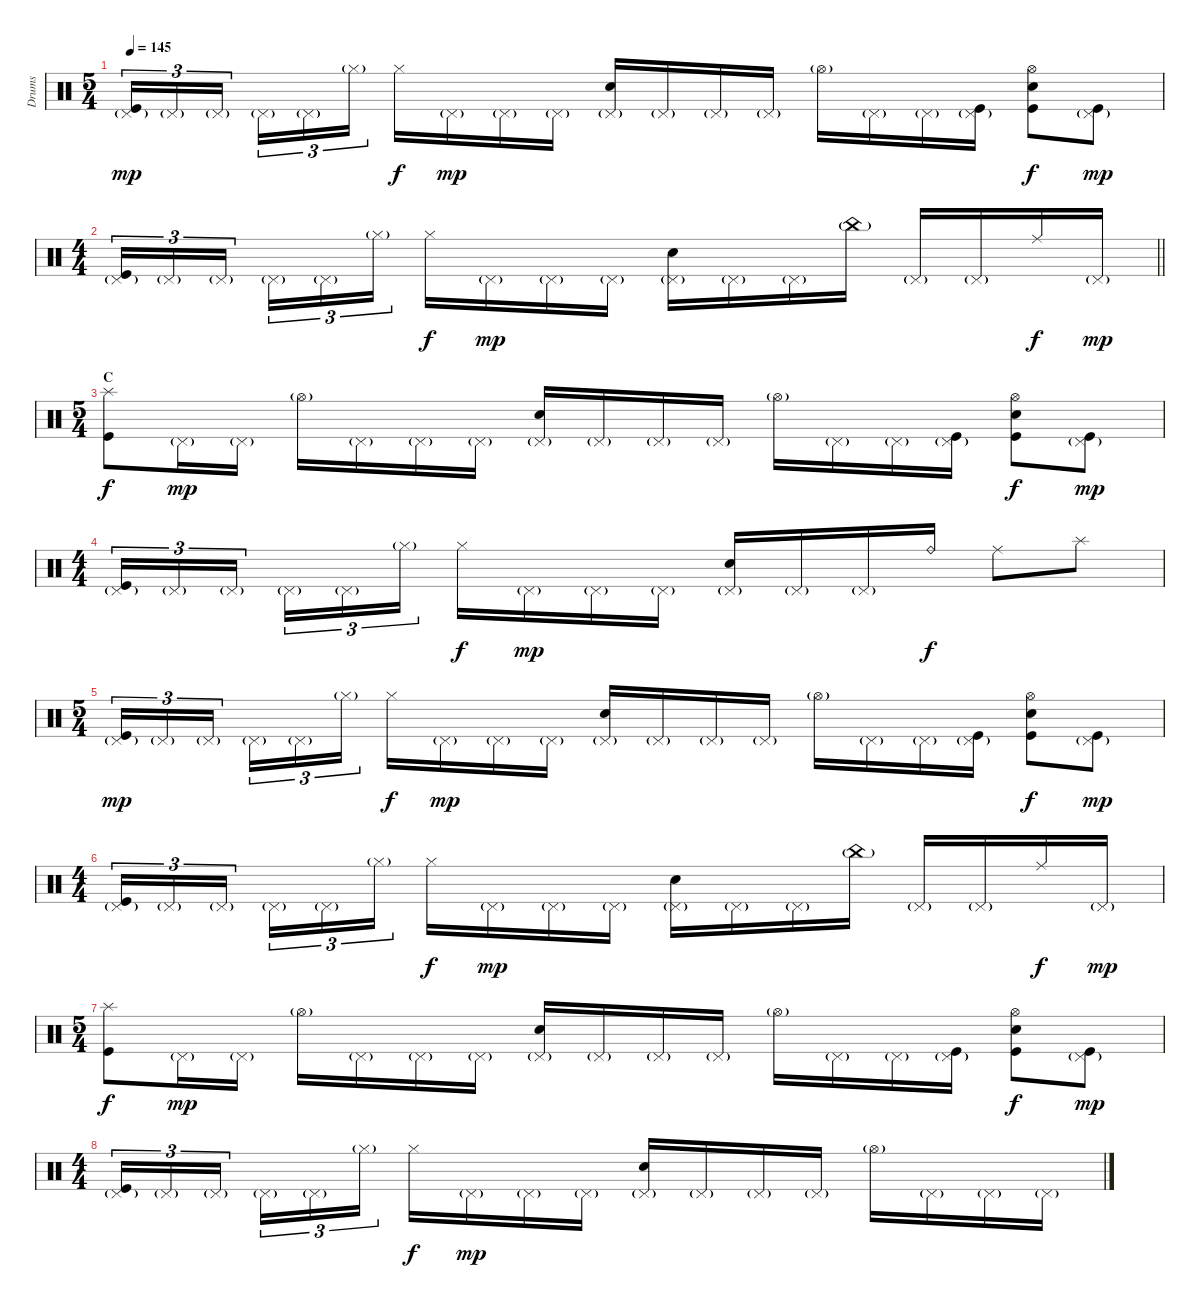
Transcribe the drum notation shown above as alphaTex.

\track ("Drums" "Drums") {instrument percussion}
\staff {score}
\articulation defaults
\ts (5 4)
\tempo 145
\clef neutral
\ks c
("Pedal Hi-Hat (hit)"{g} "Kick (hit)").16{tu (3 2) dy mp} "Pedal Hi-Hat (hit)"{g}.16{tu (3 2)} "Pedal Hi-Hat (hit)"{g}.16{tu (3 2)} "Pedal Hi-Hat (hit)"{g}.16{tu (3 2)} "Pedal Hi-Hat (hit)"{g}.16{tu (3 2)} "Hi-Hat (closed)"{g}.16{tu (3 2)} "Hi-Hat (closed)".16{dy f} "Pedal Hi-Hat (hit)"{g}.16{dy mp} "Pedal Hi-Hat (hit)"{g}.16 "Pedal Hi-Hat (hit)"{g}.16 ("Pedal Hi-Hat (hit)"{g} "Electric Snare (hit)").16 "Pedal Hi-Hat (hit)"{g}.16 "Pedal Hi-Hat (hit)"{g}.16 "Pedal Hi-Hat (hit)"{g}.16 "Hi-Hat (open)"{g}.16 "Pedal Hi-Hat (hit)"{g}.16 "Pedal Hi-Hat (hit)"{g}.16 ("Pedal Hi-Hat (hit)"{g} "Kick (hit)").16 ("Hi-Hat (open)" "Electric Snare (hit)" "Kick (hit)").8{dy f} ("Pedal Hi-Hat (hit)"{g} "Kick (hit)").8{dy mp} |
\ts (4 4)
\barLineRight lightlight
("Pedal Hi-Hat (hit)"{g} "Kick (hit)").16{tu (3 2)} "Pedal Hi-Hat (hit)"{g}.16{tu (3 2)} "Pedal Hi-Hat (hit)"{g}.16{tu (3 2)} "Pedal Hi-Hat (hit)"{g}.16{tu (3 2)} "Pedal Hi-Hat (hit)"{g}.16{tu (3 2)} "Hi-Hat (closed)"{g}.16{tu (3 2)} "Hi-Hat (closed)".16{dy f} "Pedal Hi-Hat (hit)"{g}.16{dy mp} "Pedal Hi-Hat (hit)"{g}.16 "Pedal Hi-Hat (hit)"{g}.16 ("Pedal Hi-Hat (hit)"{g} "Electric Snare (hit)").16 "Pedal Hi-Hat (hit)"{g}.16 "Pedal Hi-Hat (hit)"{g}.16 "China (hit)"{g}.16 "Pedal Hi-Hat (hit)"{g}.16 "Pedal Hi-Hat (hit)"{g}.16 "Ride (middle)".16{dy f} "Pedal Hi-Hat (hit)"{g}.16{dy mp} |
\ts (5 4)
\section ("" "C")
("Splash (hit)" "Kick (hit)").8{dy f} "Pedal Hi-Hat (hit)"{g}.16{dy mp} "Pedal Hi-Hat (hit)"{g}.16 "Hi-Hat (open)"{g}.16 "Pedal Hi-Hat (hit)"{g}.16 "Pedal Hi-Hat (hit)"{g}.16 "Pedal Hi-Hat (hit)"{g}.16 ("Pedal Hi-Hat (hit)"{g} "Electric Snare (hit)").16 "Pedal Hi-Hat (hit)"{g}.16 "Pedal Hi-Hat (hit)"{g}.16 "Pedal Hi-Hat (hit)"{g}.16 "Hi-Hat (open)"{g}.16 "Pedal Hi-Hat (hit)"{g}.16 "Pedal Hi-Hat (hit)"{g}.16 ("Pedal Hi-Hat (hit)"{g} "Kick (hit)").16 ("Hi-Hat (open)" "Electric Snare (hit)" "Kick (hit)").8{dy f} ("Pedal Hi-Hat (hit)"{g} "Kick (hit)").8{dy mp} |
\ts (4 4)
("Pedal Hi-Hat (hit)"{g} "Kick (hit)").16{tu (3 2)} "Pedal Hi-Hat (hit)"{g}.16{tu (3 2)} "Pedal Hi-Hat (hit)"{g}.16{tu (3 2)} "Pedal Hi-Hat (hit)"{g}.16{tu (3 2)} "Pedal Hi-Hat (hit)"{g}.16{tu (3 2)} "Hi-Hat (closed)"{g}.16{tu (3 2)} "Hi-Hat (closed)".16{dy f} "Pedal Hi-Hat (hit)"{g}.16{dy mp} "Pedal Hi-Hat (hit)"{g}.16 "Pedal Hi-Hat (hit)"{g}.16 ("Pedal Hi-Hat (hit)"{g} "Electric Snare (hit)").16 "Pedal Hi-Hat (hit)"{g}.16 "Pedal Hi-Hat (hit)"{g}.16 "Ride (bell)".16{dy f} "Ride (middle)".8 "Splash (hit)".8 |
\ts (5 4)
("Pedal Hi-Hat (hit)"{g} "Kick (hit)").16{tu (3 2) dy mp} "Pedal Hi-Hat (hit)"{g}.16{tu (3 2)} "Pedal Hi-Hat (hit)"{g}.16{tu (3 2)} "Pedal Hi-Hat (hit)"{g}.16{tu (3 2)} "Pedal Hi-Hat (hit)"{g}.16{tu (3 2)} "Hi-Hat (closed)"{g}.16{tu (3 2)} "Hi-Hat (closed)".16{dy f} "Pedal Hi-Hat (hit)"{g}.16{dy mp} "Pedal Hi-Hat (hit)"{g}.16 "Pedal Hi-Hat (hit)"{g}.16 ("Pedal Hi-Hat (hit)"{g} "Electric Snare (hit)").16 "Pedal Hi-Hat (hit)"{g}.16 "Pedal Hi-Hat (hit)"{g}.16 "Pedal Hi-Hat (hit)"{g}.16 "Hi-Hat (open)"{g}.16 "Pedal Hi-Hat (hit)"{g}.16 "Pedal Hi-Hat (hit)"{g}.16 ("Pedal Hi-Hat (hit)"{g} "Kick (hit)").16 ("Hi-Hat (open)" "Electric Snare (hit)" "Kick (hit)").8{dy f} ("Pedal Hi-Hat (hit)"{g} "Kick (hit)").8{dy mp} |
\ts (4 4)
("Pedal Hi-Hat (hit)"{g} "Kick (hit)").16{tu (3 2)} "Pedal Hi-Hat (hit)"{g}.16{tu (3 2)} "Pedal Hi-Hat (hit)"{g}.16{tu (3 2)} "Pedal Hi-Hat (hit)"{g}.16{tu (3 2)} "Pedal Hi-Hat (hit)"{g}.16{tu (3 2)} "Hi-Hat (closed)"{g}.16{tu (3 2)} "Hi-Hat (closed)".16{dy f} "Pedal Hi-Hat (hit)"{g}.16{dy mp} "Pedal Hi-Hat (hit)"{g}.16 "Pedal Hi-Hat (hit)"{g}.16 ("Pedal Hi-Hat (hit)"{g} "Electric Snare (hit)").16 "Pedal Hi-Hat (hit)"{g}.16 "Pedal Hi-Hat (hit)"{g}.16 "China (hit)"{g}.16 "Pedal Hi-Hat (hit)"{g}.16 "Pedal Hi-Hat (hit)"{g}.16 "Ride (middle)".16{dy f} "Pedal Hi-Hat (hit)"{g}.16{dy mp} |
\ts (5 4)
("Splash (hit)" "Kick (hit)").8{dy f} "Pedal Hi-Hat (hit)"{g}.16{dy mp} "Pedal Hi-Hat (hit)"{g}.16 "Hi-Hat (open)"{g}.16 "Pedal Hi-Hat (hit)"{g}.16 "Pedal Hi-Hat (hit)"{g}.16 "Pedal Hi-Hat (hit)"{g}.16 ("Pedal Hi-Hat (hit)"{g} "Electric Snare (hit)").16 "Pedal Hi-Hat (hit)"{g}.16 "Pedal Hi-Hat (hit)"{g}.16 "Pedal Hi-Hat (hit)"{g}.16 "Hi-Hat (open)"{g}.16 "Pedal Hi-Hat (hit)"{g}.16 "Pedal Hi-Hat (hit)"{g}.16 ("Pedal Hi-Hat (hit)"{g} "Kick (hit)").16 ("Hi-Hat (open)" "Electric Snare (hit)" "Kick (hit)").8{dy f} ("Pedal Hi-Hat (hit)"{g} "Kick (hit)").8{dy mp} |
\ts (4 4)
("Pedal Hi-Hat (hit)"{g} "Kick (hit)").16{tu (3 2)} "Pedal Hi-Hat (hit)"{g}.16{tu (3 2)} "Pedal Hi-Hat (hit)"{g}.16{tu (3 2)} "Pedal Hi-Hat (hit)"{g}.16{tu (3 2)} "Pedal Hi-Hat (hit)"{g}.16{tu (3 2)} "Hi-Hat (closed)"{g}.16{tu (3 2)} "Hi-Hat (closed)".16{dy f} "Pedal Hi-Hat (hit)"{g}.16{dy mp} "Pedal Hi-Hat (hit)"{g}.16 "Pedal Hi-Hat (hit)"{g}.16 ("Pedal Hi-Hat (hit)"{g} "Electric Snare (hit)").16 "Pedal Hi-Hat (hit)"{g}.16 "Pedal Hi-Hat (hit)"{g}.16 "Pedal Hi-Hat (hit)"{g}.16 "Hi-Hat (open)"{g}.16 "Pedal Hi-Hat (hit)"{g}.16 "Pedal Hi-Hat (hit)"{g}.16 "Pedal Hi-Hat (hit)"{g}.16
